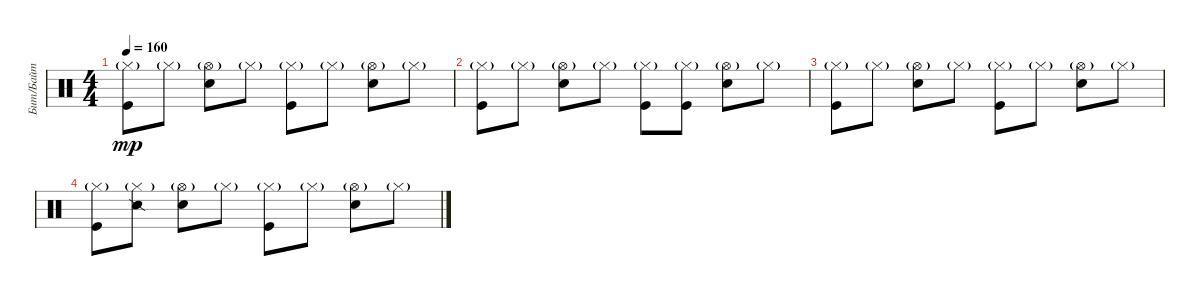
\track ("Бит/Байт" "Бит/Байт") {instrument percussion}
\staff {score}
\articulation defaults
\ts (4 4)
\tempo 160
\clef neutral
\ks c
("Hi-Hat (closed)"{g} "Kick (hit)").8{dy mp} "Hi-Hat (closed)"{g}.8 ("Hi-Hat (open)"{g} "Snare (hit) 2").8 "Hi-Hat (closed)"{g}.8 ("Hi-Hat (closed)"{g} "Kick (hit)").8 "Hi-Hat (closed)"{g}.8 ("Hi-Hat (open)"{g} "Snare (hit) 2").8 "Hi-Hat (closed)"{g}.8 |
("Hi-Hat (closed)"{g} "Kick (hit)").8 "Hi-Hat (closed)"{g}.8 ("Hi-Hat (open)"{g} "Snare (hit) 2").8 "Hi-Hat (closed)"{g}.8 ("Hi-Hat (closed)"{g} "Kick (hit)").8 ("Hi-Hat (closed)"{g} "Kick (hit)").8 ("Hi-Hat (open)"{g} "Snare (hit) 2").8 "Hi-Hat (closed)"{g}.8 |
("Hi-Hat (closed)"{g} "Kick (hit)").8 "Hi-Hat (closed)"{g}.8 ("Hi-Hat (open)"{g} "Snare (hit) 2").8 "Hi-Hat (closed)"{g}.8 ("Hi-Hat (closed)"{g} "Kick (hit)").8 "Hi-Hat (closed)"{g}.8 ("Hi-Hat (open)"{g} "Snare (hit) 2").8 "Hi-Hat (closed)"{g}.8 |
("Hi-Hat (closed)"{g} "Kick (hit)").8 ("Hi-Hat (closed)"{g} "Snare (side stick) 2").8 ("Hi-Hat (open)"{g} "Snare (hit) 2").8 "Hi-Hat (closed)"{g}.8 ("Hi-Hat (closed)"{g} "Kick (hit)").8 "Hi-Hat (closed)"{g}.8 ("Hi-Hat (open)"{g} "Snare (hit) 2").8 "Hi-Hat (closed)"{g}.8
